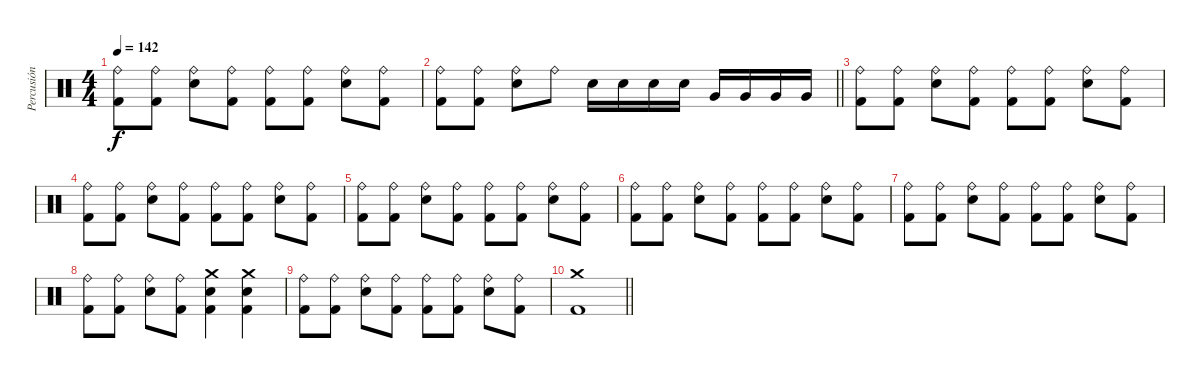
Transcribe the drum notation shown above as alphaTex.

\track ("Percusión" "Percusión") {instrument percussion}
\staff {score}
\articulation defaults
\ts (4 4)
\tempo 142
\clef neutral
\ks c
("Ride (bell)" "Kick (hit) 2").8{dy f} ("Ride (bell)" "Kick (hit) 2").8 ("Ride (bell)" "Electric Snare (hit)").8 ("Ride (bell)" "Kick (hit) 2").8 ("Ride (bell)" "Kick (hit) 2").8 ("Ride (bell)" "Kick (hit) 2").8 ("Ride (bell)" "Electric Snare (hit)").8 ("Ride (bell)" "Kick (hit) 2").8 |
\barLineRight lightlight
("Ride (bell)" "Kick (hit) 2").8 ("Ride (bell)" "Kick (hit) 2").8 ("Ride (bell)" "Electric Snare (hit)").8 "Ride (bell)".8 "Electric Snare (hit)".16 "Electric Snare (hit)".16 "Electric Snare (hit)".16 "Electric Snare (hit)".16 "Very Low Tom (hit)".16 "Very Low Tom (hit)".16 "Very Low Tom (hit)".16 "Very Low Tom (hit)".16 |
("Ride (bell)" "Kick (hit) 2").8 ("Ride (bell)" "Kick (hit) 2").8 ("Ride (bell)" "Electric Snare (hit)").8 ("Ride (bell)" "Kick (hit) 2").8 ("Ride (bell)" "Kick (hit) 2").8 ("Ride (bell)" "Kick (hit) 2").8 ("Ride (bell)" "Electric Snare (hit)").8 ("Ride (bell)" "Kick (hit) 2").8 |
("Ride (bell)" "Kick (hit) 2").8 ("Ride (bell)" "Kick (hit) 2").8 ("Ride (bell)" "Electric Snare (hit)").8 ("Ride (bell)" "Kick (hit) 2").8 ("Ride (bell)" "Kick (hit) 2").8 ("Ride (bell)" "Kick (hit) 2").8 ("Ride (bell)" "Electric Snare (hit)").8 ("Ride (bell)" "Kick (hit) 2").8 |
("Ride (bell)" "Kick (hit) 2").8 ("Ride (bell)" "Kick (hit) 2").8 ("Ride (bell)" "Electric Snare (hit)").8 ("Ride (bell)" "Kick (hit) 2").8 ("Ride (bell)" "Kick (hit) 2").8 ("Ride (bell)" "Kick (hit) 2").8 ("Ride (bell)" "Electric Snare (hit)").8 ("Ride (bell)" "Kick (hit) 2").8 |
("Ride (bell)" "Kick (hit) 2").8 ("Ride (bell)" "Kick (hit) 2").8 ("Ride (bell)" "Electric Snare (hit)").8 ("Ride (bell)" "Kick (hit) 2").8 ("Ride (bell)" "Kick (hit) 2").8 ("Ride (bell)" "Kick (hit) 2").8 ("Ride (bell)" "Electric Snare (hit)").8 ("Ride (bell)" "Kick (hit) 2").8 |
("Ride (bell)" "Kick (hit) 2").8 ("Ride (bell)" "Kick (hit) 2").8 ("Ride (bell)" "Electric Snare (hit)").8 ("Ride (bell)" "Kick (hit) 2").8 ("Ride (bell)" "Kick (hit) 2").8 ("Ride (bell)" "Kick (hit) 2").8 ("Ride (bell)" "Electric Snare (hit)").8 ("Ride (bell)" "Kick (hit) 2").8 |
("Ride (bell)" "Kick (hit) 2").8 ("Ride (bell)" "Kick (hit) 2").8 ("Ride (bell)" "Electric Snare (hit)").8 ("Ride (bell)" "Kick (hit) 2").8 ("Crash medium (hit)" "Electric Snare (hit)" "Kick (hit) 2").4 ("Crash medium (hit)" "Electric Snare (hit)" "Kick (hit) 2").4 |
("Ride (bell)" "Kick (hit) 2").8 ("Ride (bell)" "Kick (hit) 2").8 ("Ride (bell)" "Electric Snare (hit)").8 ("Ride (bell)" "Kick (hit) 2").8 ("Ride (bell)" "Kick (hit) 2").8 ("Ride (bell)" "Kick (hit) 2").8 ("Ride (bell)" "Electric Snare (hit)").8 ("Ride (bell)" "Kick (hit) 2").8 |
\barLineRight lightlight
("Crash medium (hit)" "Kick (hit) 2").1
